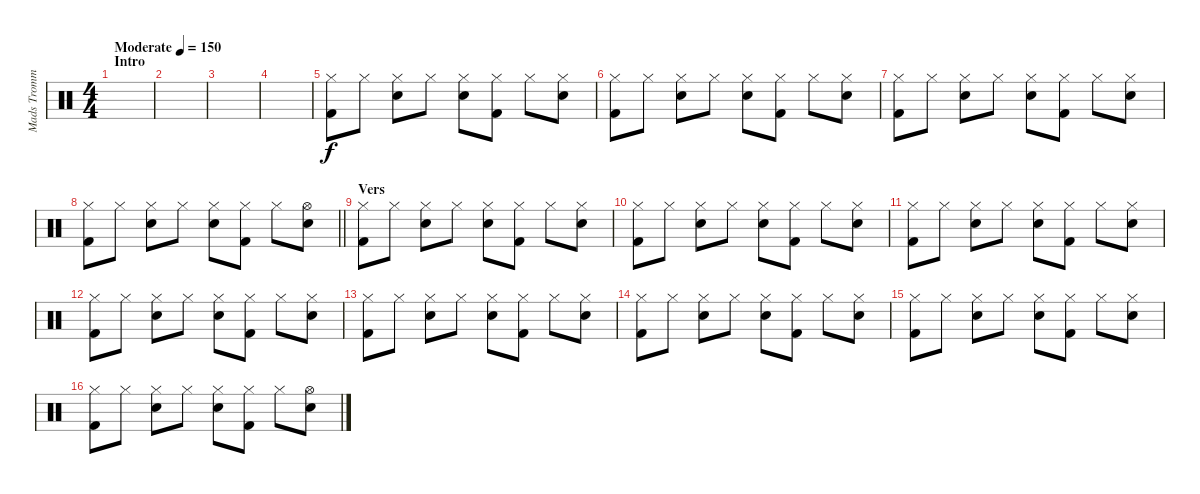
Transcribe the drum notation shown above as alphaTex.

\track ("Mads Trommer" "Mads Tromm") {instrument percussion}
\staff {score}
\articulation defaults
\ts (4 4)
\section ("" "Intro")
\tempo (150 "Moderate")
\clef neutral
\ks c
|
|
|
|
("Hi-Hat (closed)" "Kick (hit) 2").8 "Hi-Hat (closed)".8 ("Hi-Hat (closed)" "Electric Snare (hit)").8 "Hi-Hat (closed)".8 ("Hi-Hat (closed)" "Electric Snare (hit)").8 ("Hi-Hat (closed)" "Kick (hit) 2").8 "Hi-Hat (closed)".8 ("Hi-Hat (closed)" "Electric Snare (hit)").8 |
("Hi-Hat (closed)" "Kick (hit) 2").8 "Hi-Hat (closed)".8 ("Hi-Hat (closed)" "Electric Snare (hit)").8 "Hi-Hat (closed)".8 ("Hi-Hat (closed)" "Electric Snare (hit)").8 ("Hi-Hat (closed)" "Kick (hit) 2").8 "Hi-Hat (closed)".8 ("Hi-Hat (closed)" "Electric Snare (hit)").8 |
("Hi-Hat (closed)" "Kick (hit) 2").8 "Hi-Hat (closed)".8 ("Hi-Hat (closed)" "Electric Snare (hit)").8 "Hi-Hat (closed)".8 ("Hi-Hat (closed)" "Electric Snare (hit)").8 ("Hi-Hat (closed)" "Kick (hit) 2").8 "Hi-Hat (closed)".8 ("Hi-Hat (closed)" "Electric Snare (hit)").8 |
\barLineRight lightlight
("Hi-Hat (closed)" "Kick (hit) 2").8 "Hi-Hat (closed)".8 ("Hi-Hat (closed)" "Electric Snare (hit)").8 "Hi-Hat (closed)".8 ("Hi-Hat (closed)" "Electric Snare (hit)").8 ("Hi-Hat (closed)" "Kick (hit) 2").8 "Hi-Hat (closed)".8 ("Hi-Hat (open)" "Electric Snare (hit)").8 |
\section ("" "Vers")
("Hi-Hat (closed)" "Kick (hit) 2").8 "Hi-Hat (closed)".8 ("Hi-Hat (closed)" "Electric Snare (hit)").8 "Hi-Hat (closed)".8 ("Hi-Hat (closed)" "Electric Snare (hit)").8 ("Hi-Hat (closed)" "Kick (hit) 2").8 "Hi-Hat (closed)".8 ("Hi-Hat (closed)" "Electric Snare (hit)").8 |
("Hi-Hat (closed)" "Kick (hit) 2").8 "Hi-Hat (closed)".8 ("Hi-Hat (closed)" "Electric Snare (hit)").8 "Hi-Hat (closed)".8 ("Hi-Hat (closed)" "Electric Snare (hit)").8 ("Hi-Hat (closed)" "Kick (hit) 2").8 "Hi-Hat (closed)".8 ("Hi-Hat (closed)" "Electric Snare (hit)").8 |
("Hi-Hat (closed)" "Kick (hit) 2").8 "Hi-Hat (closed)".8 ("Hi-Hat (closed)" "Electric Snare (hit)").8 "Hi-Hat (closed)".8 ("Hi-Hat (closed)" "Electric Snare (hit)").8 ("Hi-Hat (closed)" "Kick (hit) 2").8 "Hi-Hat (closed)".8 ("Hi-Hat (closed)" "Electric Snare (hit)").8 |
("Hi-Hat (closed)" "Kick (hit) 2").8 "Hi-Hat (closed)".8 ("Hi-Hat (closed)" "Electric Snare (hit)").8 "Hi-Hat (closed)".8 ("Hi-Hat (closed)" "Electric Snare (hit)").8 ("Hi-Hat (closed)" "Kick (hit) 2").8 "Hi-Hat (closed)".8 ("Hi-Hat (closed)" "Electric Snare (hit)").8 |
("Hi-Hat (closed)" "Kick (hit) 2").8 "Hi-Hat (closed)".8 ("Hi-Hat (closed)" "Electric Snare (hit)").8 "Hi-Hat (closed)".8 ("Hi-Hat (closed)" "Electric Snare (hit)").8 ("Hi-Hat (closed)" "Kick (hit) 2").8 "Hi-Hat (closed)".8 ("Hi-Hat (closed)" "Electric Snare (hit)").8 |
("Hi-Hat (closed)" "Kick (hit) 2").8 "Hi-Hat (closed)".8 ("Hi-Hat (closed)" "Electric Snare (hit)").8 "Hi-Hat (closed)".8 ("Hi-Hat (closed)" "Electric Snare (hit)").8 ("Hi-Hat (closed)" "Kick (hit) 2").8 "Hi-Hat (closed)".8 ("Hi-Hat (closed)" "Electric Snare (hit)").8 |
("Hi-Hat (closed)" "Kick (hit) 2").8 "Hi-Hat (closed)".8 ("Hi-Hat (closed)" "Electric Snare (hit)").8 "Hi-Hat (closed)".8 ("Hi-Hat (closed)" "Electric Snare (hit)").8 ("Hi-Hat (closed)" "Kick (hit) 2").8 "Hi-Hat (closed)".8 ("Hi-Hat (closed)" "Electric Snare (hit)").8 |
("Hi-Hat (closed)" "Kick (hit) 2").8 "Hi-Hat (closed)".8 ("Hi-Hat (closed)" "Electric Snare (hit)").8 "Hi-Hat (closed)".8 ("Hi-Hat (closed)" "Electric Snare (hit)").8 ("Hi-Hat (closed)" "Kick (hit) 2").8 "Hi-Hat (closed)".8 ("Hi-Hat (open)" "Electric Snare (hit)").8
